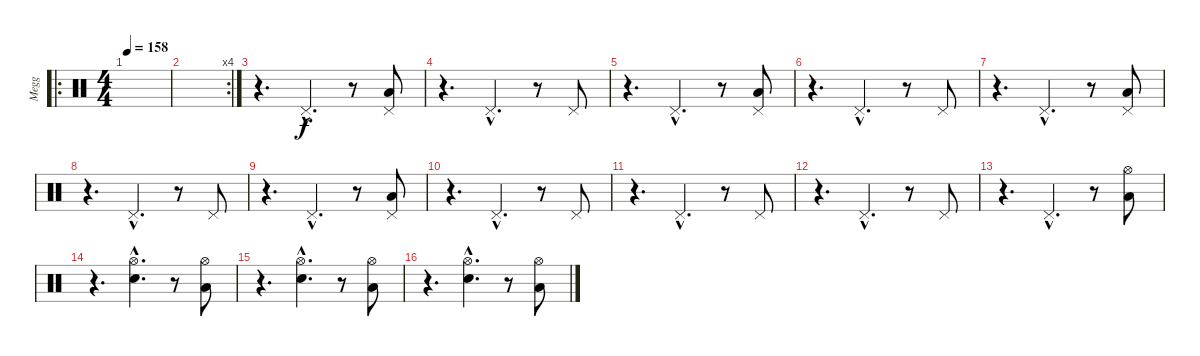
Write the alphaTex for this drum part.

\track ("Megg" "Megg") {instrument percussion}
\staff {score}
\articulation defaults
\ro
\ts (4 4)
\tempo 158
\clef neutral
\ks c
|
\rc 4
|
r.4{d} "Pedal Hi-Hat (hit)"{hac}.4{d} r.8 ("Pedal Hi-Hat (hit)" "Low Tom (hit)").8 |
r.4{d} "Pedal Hi-Hat (hit)"{hac}.4{d} r.8 "Pedal Hi-Hat (hit)".8 |
r.4{d} "Pedal Hi-Hat (hit)"{hac}.4{d} r.8 ("Pedal Hi-Hat (hit)" "Low Tom (hit)").8 |
r.4{d} "Pedal Hi-Hat (hit)"{hac}.4{d} r.8 "Pedal Hi-Hat (hit)".8 |
r.4{d} "Pedal Hi-Hat (hit)"{hac}.4{d} r.8 ("Pedal Hi-Hat (hit)" "Low Tom (hit)").8 |
r.4{d} "Pedal Hi-Hat (hit)"{hac}.4{d} r.8 "Pedal Hi-Hat (hit)".8 |
r.4{d} "Pedal Hi-Hat (hit)"{hac}.4{d} r.8 ("Pedal Hi-Hat (hit)" "Low Tom (hit)").8 |
r.4{d} "Pedal Hi-Hat (hit)"{hac}.4{d} r.8 "Pedal Hi-Hat (hit)".8 |
r.4{d} "Pedal Hi-Hat (hit)"{hac}.4{d} r.8 "Pedal Hi-Hat (hit)".8 |
r.4{d} "Pedal Hi-Hat (hit)"{hac}.4{d} r.8 "Pedal Hi-Hat (hit)".8 |
r.4{d} "Pedal Hi-Hat (hit)"{hac}.4{d} r.8 ("Low Tom (hit)" "Hi-Hat (open)").8 |
r.4{d} ("Electric Snare (hit)"{hac} "Hi-Hat (open)"{hac}).4{d} r.8 ("Low Tom (hit)" "Hi-Hat (open)").8 |
r.4{d} ("Electric Snare (hit)"{hac} "Hi-Hat (open)"{hac}).4{d} r.8 ("Low Tom (hit)" "Hi-Hat (open)").8 |
r.4{d} ("Electric Snare (hit)"{hac} "Hi-Hat (open)"{hac}).4{d} r.8 ("Low Tom (hit)" "Hi-Hat (open)").8
